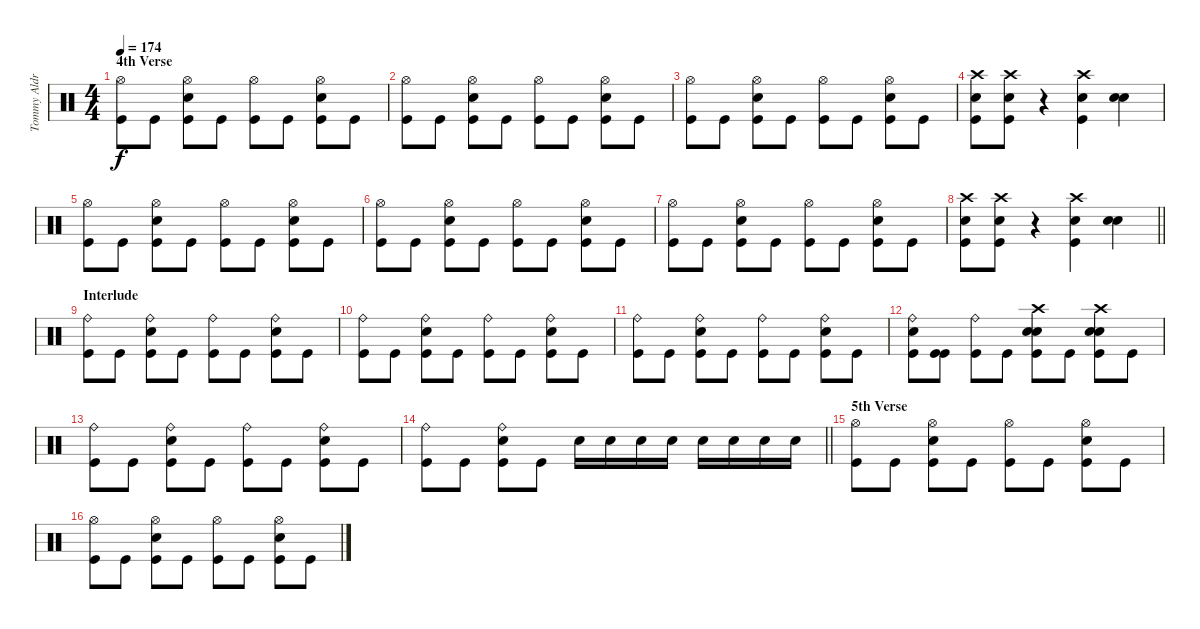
\track ("Tommy Aldrige" "Tommy Aldr") {instrument percussion}
\staff {score}
\articulation defaults
\ts (4 4)
\section ("" "4th Verse")
\tempo 174
\clef neutral
\ks c
("Hi-Hat (open)" "Kick (hit)").8{dy f} "Kick (hit)".8 ("Hi-Hat (open)" "Kick (hit)" "Snare (hit) 2").8 "Kick (hit)".8 ("Hi-Hat (open)" "Kick (hit)").8 "Kick (hit)".8 ("Hi-Hat (open)" "Kick (hit)" "Snare (hit) 2").8 "Kick (hit)".8 |
("Hi-Hat (open)" "Kick (hit)").8 "Kick (hit)".8 ("Hi-Hat (open)" "Kick (hit)" "Snare (hit) 2").8 "Kick (hit)".8 ("Hi-Hat (open)" "Kick (hit)").8 "Kick (hit)".8 ("Hi-Hat (open)" "Kick (hit)" "Snare (hit) 2").8 "Kick (hit)".8 |
("Hi-Hat (open)" "Kick (hit)").8 "Kick (hit)".8 ("Hi-Hat (open)" "Kick (hit)" "Snare (hit) 2").8 "Kick (hit)".8 ("Hi-Hat (open)" "Kick (hit)").8 "Kick (hit)".8 ("Hi-Hat (open)" "Kick (hit)" "Snare (hit) 2").8 "Kick (hit)".8 |
("Crash high (hit)" "Kick (hit)" "Snare (hit) 2").8 ("Crash high (hit)" "Kick (hit)" "Snare (hit) 2").8 r.4 ("Crash high (hit)" "Kick (hit)" "Snare (hit) 2").4 ("Snare (hit) 2" "Snare (hit) 2").4{bu 240} |
("Hi-Hat (open)" "Kick (hit)").8 "Kick (hit)".8 ("Hi-Hat (open)" "Kick (hit)" "Snare (hit) 2").8 "Kick (hit)".8 ("Hi-Hat (open)" "Kick (hit)").8 "Kick (hit)".8 ("Hi-Hat (open)" "Kick (hit)" "Snare (hit) 2").8 "Kick (hit)".8 |
("Hi-Hat (open)" "Kick (hit)").8 "Kick (hit)".8 ("Hi-Hat (open)" "Kick (hit)" "Snare (hit) 2").8 "Kick (hit)".8 ("Hi-Hat (open)" "Kick (hit)").8 "Kick (hit)".8 ("Hi-Hat (open)" "Kick (hit)" "Snare (hit) 2").8 "Kick (hit)".8 |
("Hi-Hat (open)" "Kick (hit)").8 "Kick (hit)".8 ("Hi-Hat (open)" "Kick (hit)" "Snare (hit) 2").8 "Kick (hit)".8 ("Hi-Hat (open)" "Kick (hit)").8 "Kick (hit)".8 ("Hi-Hat (open)" "Kick (hit)" "Snare (hit) 2").8 "Kick (hit)".8 |
\barLineRight lightlight
("Crash high (hit)" "Kick (hit)" "Snare (hit) 2").8 ("Crash high (hit)" "Kick (hit)" "Snare (hit) 2").8 r.4 ("Crash high (hit)" "Kick (hit)" "Snare (hit) 2").4 ("Snare (hit) 2" "Snare (hit) 2").4{bu 240} |
\section ("" "Interlude")
("Ride (bell)" "Kick (hit)").8 "Kick (hit)".8 ("Ride (bell)" "Kick (hit)" "Snare (hit) 2").8 "Kick (hit)".8 ("Ride (bell)" "Kick (hit)").8 "Kick (hit)".8 ("Ride (bell)" "Kick (hit)" "Snare (hit) 2").8 "Kick (hit)".8 |
("Ride (bell)" "Kick (hit)").8 "Kick (hit)".8 ("Ride (bell)" "Kick (hit)" "Snare (hit) 2").8 "Kick (hit)".8 ("Ride (bell)" "Kick (hit)").8 "Kick (hit)".8 ("Ride (bell)" "Kick (hit)" "Snare (hit) 2").8 "Kick (hit)".8 |
("Ride (bell)" "Kick (hit)").8 "Kick (hit)".8 ("Ride (bell)" "Kick (hit)" "Snare (hit) 2").8 "Kick (hit)".8 ("Ride (bell)" "Kick (hit)").8 "Kick (hit)".8 ("Ride (bell)" "Kick (hit)" "Snare (hit) 2").8 "Kick (hit)".8 |
("Ride (bell)" "Kick (hit)" "Snare (hit) 2").8 ("Kick (hit)" "Kick (hit)").8 ("Ride (bell)" "Kick (hit)").8 "Kick (hit)".8 ("Crash high (hit)" "Snare (hit) 2" "Snare (hit) 2" "Kick (hit)").8 "Kick (hit)".8 ("Crash high (hit)" "Snare (hit) 2" "Snare (hit) 2" "Kick (hit)").8 "Kick (hit)".8 |
("Ride (bell)" "Kick (hit)").8 "Kick (hit)".8 ("Ride (bell)" "Kick (hit)" "Snare (hit) 2").8 "Kick (hit)".8 ("Ride (bell)" "Kick (hit)").8 "Kick (hit)".8 ("Ride (bell)" "Kick (hit)" "Snare (hit) 2").8 "Kick (hit)".8 |
\barLineRight lightlight
("Ride (bell)" "Kick (hit)").8 "Kick (hit)".8 ("Ride (bell)" "Kick (hit)" "Snare (hit) 2").8 "Kick (hit)".8 "Snare (hit) 2".16 "Snare (hit) 2".16 "Snare (hit) 2".16 "Snare (hit) 2".16 "Snare (hit) 2".16 "Snare (hit) 2".16 "Snare (hit) 2".16 "Snare (hit) 2".16 |
\section ("" "5th Verse")
("Hi-Hat (open)" "Kick (hit)").8 "Kick (hit)".8 ("Hi-Hat (open)" "Kick (hit)" "Snare (hit) 2").8 "Kick (hit)".8 ("Hi-Hat (open)" "Kick (hit)").8 "Kick (hit)".8 ("Hi-Hat (open)" "Kick (hit)" "Snare (hit) 2").8 "Kick (hit)".8 |
("Hi-Hat (open)" "Kick (hit)").8 "Kick (hit)".8 ("Hi-Hat (open)" "Kick (hit)" "Snare (hit) 2").8 "Kick (hit)".8 ("Hi-Hat (open)" "Kick (hit)").8 "Kick (hit)".8 ("Hi-Hat (open)" "Kick (hit)" "Snare (hit) 2").8 "Kick (hit)".8
